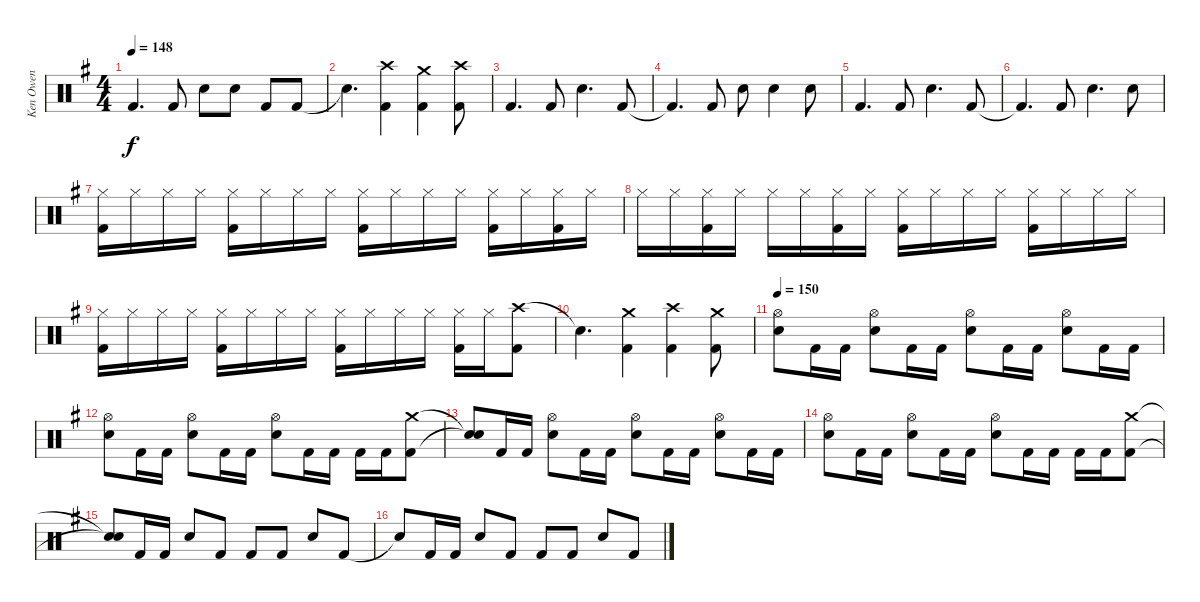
\track ("Ken Owen" "Ken Owen") {instrument percussion}
\staff {score}
\articulation defaults
\ts (4 4)
\tempo 148
\clef neutral
\ks g "Kick (hit) 2".4{d dy f} "Kick (hit) 2".8 "Snare (hit) 2".8 "Snare (hit) 2".8 "Kick (hit) 2".8 "Kick (hit) 2".8
|
"Snare (hit)"{t}.4{d} ("Crash high (hit)" "Kick (hit) 2").4 ("Crash medium (hit)" "Kick (hit) 2").4 ("Crash high (hit)" "Kick (hit) 2").8 |
"Kick (hit) 2".4{d} "Kick (hit) 2".8 "Snare (hit) 2".4{d} "Kick (hit) 2".8 |
"Kick (hit) 2"{t}.4{d} "Kick (hit) 2".8 "Snare (hit) 2".8 "Snare (hit) 2".4 "Snare (hit) 2".8 |
"Kick (hit) 2".4{d} "Kick (hit) 2".8 "Snare (hit) 2".4{d} "Kick (hit) 2".8 |
"Kick (hit) 2"{t}.4{d} "Kick (hit) 2".8 "Snare (hit) 2".4{d} "Snare (hit) 2".8 |
("Hi-Hat (closed)" "Kick (hit) 2").16 "Hi-Hat (closed)".16 "Hi-Hat (closed)".16 "Hi-Hat (closed)".16 ("Hi-Hat (closed)" "Kick (hit) 2").16 "Hi-Hat (closed)".16 "Hi-Hat (closed)".16 "Hi-Hat (closed)".16 ("Hi-Hat (closed)" "Kick (hit) 2").16 "Hi-Hat (closed)".16 "Hi-Hat (closed)".16 "Hi-Hat (closed)".16 ("Hi-Hat (closed)" "Kick (hit) 2").16 "Hi-Hat (closed)".16 ("Hi-Hat (closed)" "Kick (hit) 2").16 "Hi-Hat (closed)".16 |
"Hi-Hat (closed)".16 "Hi-Hat (closed)".16 ("Hi-Hat (closed)" "Kick (hit) 2").16 "Hi-Hat (closed)".16 "Hi-Hat (closed)".16 "Hi-Hat (closed)".16 ("Hi-Hat (closed)" "Kick (hit) 2").16 "Hi-Hat (closed)".16 ("Hi-Hat (closed)" "Kick (hit) 2").16 "Hi-Hat (closed)".16 "Hi-Hat (closed)".16 "Hi-Hat (closed)".16 ("Hi-Hat (closed)" "Kick (hit) 2").16 "Hi-Hat (closed)".16 "Hi-Hat (closed)".16 "Hi-Hat (closed)".16 |
("Hi-Hat (closed)" "Kick (hit) 2").16 "Hi-Hat (closed)".16 "Hi-Hat (closed)".16 "Hi-Hat (closed)".16 ("Hi-Hat (closed)" "Kick (hit) 2").16 "Hi-Hat (closed)".16 "Hi-Hat (closed)".16 "Hi-Hat (closed)".16 ("Hi-Hat (closed)" "Kick (hit) 2").16 "Hi-Hat (closed)".16 "Hi-Hat (closed)".16 "Hi-Hat (closed)".16 ("Hi-Hat (closed)" "Kick (hit) 2").16 "Hi-Hat (closed)".16 ("Crash high (hit)" "Kick (hit) 2").8 |
"Snare (hit)"{t}.4{d} ("Crash medium (hit)" "Kick (hit) 2").4 ("Crash high (hit)" "Kick (hit) 2").4 ("Crash medium (hit)" "Kick (hit) 2").8 |
\tempo 150
("Hi-Hat (open)" "Snare (hit) 2").8 "Kick (hit) 2".16 "Kick (hit) 2".16 ("Hi-Hat (open)" "Snare (hit) 2").8 "Kick (hit) 2".16 "Kick (hit) 2".16 ("Hi-Hat (open)" "Snare (hit) 2").8 "Kick (hit) 2".16 "Kick (hit) 2".16 ("Hi-Hat (open)" "Snare (hit) 2").8 "Kick (hit) 2".16 "Kick (hit) 2".16 |
("Hi-Hat (open)" "Snare (hit) 2").8 "Kick (hit) 2".16 "Kick (hit) 2".16 ("Hi-Hat (open)" "Snare (hit) 2").8 "Kick (hit) 2".16 "Kick (hit) 2".16 ("Hi-Hat (open)" "Snare (hit) 2").8 "Kick (hit) 2".16 "Kick (hit) 2".16 "Kick (hit) 2".16 "Kick (hit) 2".16 ("Crash medium (hit)" "Kick (hit) 2").8 |
("Snare (hit)"{t} "Snare (hit)"{t}).8 "Kick (hit) 2".16 "Kick (hit) 2".16 ("Hi-Hat (open)" "Snare (hit) 2").8 "Kick (hit) 2".16 "Kick (hit) 2".16 ("Hi-Hat (open)" "Snare (hit) 2").8 "Kick (hit) 2".16 "Kick (hit) 2".16 ("Hi-Hat (open)" "Snare (hit) 2").8 "Kick (hit) 2".16 "Kick (hit) 2".16 |
("Hi-Hat (open)" "Snare (hit) 2").8 "Kick (hit) 2".16 "Kick (hit) 2".16 ("Hi-Hat (open)" "Snare (hit) 2").8 "Kick (hit) 2".16 "Kick (hit) 2".16 ("Hi-Hat (open)" "Snare (hit) 2").8 "Kick (hit) 2".16 "Kick (hit) 2".16 "Kick (hit) 2".16 "Kick (hit) 2".16 ("Crash medium (hit)" "Kick (hit) 2").8 |
("Snare (hit)"{t} "Snare (hit)"{t}).8 "Kick (hit) 2".16 "Kick (hit) 2".16 "Snare (hit) 2".8 "Kick (hit) 2".8 "Kick (hit) 2".8 "Kick (hit) 2".8 "Snare (hit) 2".8 "Kick (hit) 2".8 |
"Snare (hit)"{t}.8 "Kick (hit) 2".16 "Kick (hit) 2".16 "Snare (hit) 2".8 "Kick (hit) 2".8 "Kick (hit) 2".8 "Kick (hit) 2".8 "Snare (hit) 2".8 "Kick (hit) 2".8
